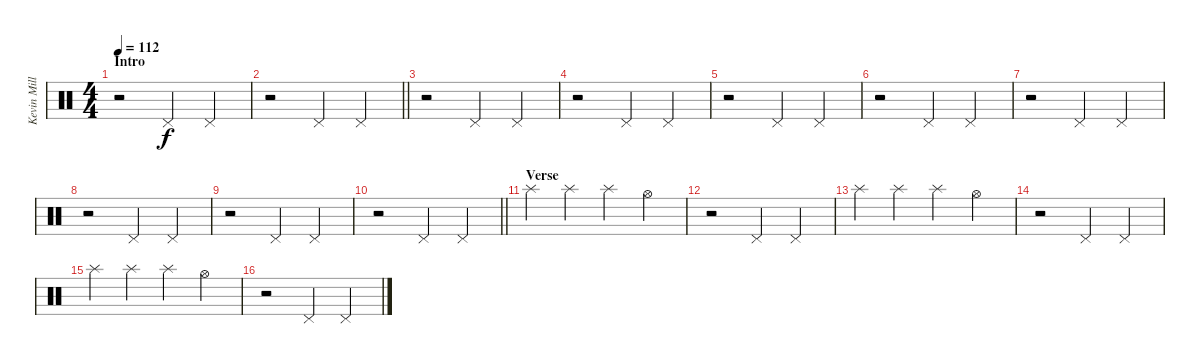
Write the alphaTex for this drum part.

\track ("Kevin Miller (Drums)" "Kevin Mill") {instrument percussion}
\staff {score}
\articulation defaults
\ts (4 4)
\section ("" "Intro")
\tempo 112
\clef neutral
\ks c
r.2{dy f} "Pedal Hi-Hat (hit)".4 "Pedal Hi-Hat (hit)".4 |
\barLineRight lightlight
r.2 "Pedal Hi-Hat (hit)".4 "Pedal Hi-Hat (hit)".4 |
r.2 "Pedal Hi-Hat (hit)".4 "Pedal Hi-Hat (hit)".4 |
r.2 "Pedal Hi-Hat (hit)".4 "Pedal Hi-Hat (hit)".4 |
r.2 "Pedal Hi-Hat (hit)".4 "Pedal Hi-Hat (hit)".4 |
r.2 "Pedal Hi-Hat (hit)".4 "Pedal Hi-Hat (hit)".4 |
r.2 "Pedal Hi-Hat (hit)".4 "Pedal Hi-Hat (hit)".4 |
r.2 "Pedal Hi-Hat (hit)".4 "Pedal Hi-Hat (hit)".4 |
r.2 "Pedal Hi-Hat (hit)".4 "Pedal Hi-Hat (hit)".4 |
\barLineRight lightlight
r.2 "Pedal Hi-Hat (hit)".4 "Pedal Hi-Hat (hit)".4 |
\section ("" "Verse")
"Splash (hit)".4 "Splash (hit)".4 "Splash (hit)".4 "Hi-Hat (open)".4 |
r.2 "Pedal Hi-Hat (hit)".4 "Pedal Hi-Hat (hit)".4 |
"Splash (hit)".4 "Splash (hit)".4 "Splash (hit)".4 "Hi-Hat (open)".4 |
r.2 "Pedal Hi-Hat (hit)".4 "Pedal Hi-Hat (hit)".4 |
"Splash (hit)".4 "Splash (hit)".4 "Splash (hit)".4 "Hi-Hat (open)".4 |
r.2 "Pedal Hi-Hat (hit)".4 "Pedal Hi-Hat (hit)".4
